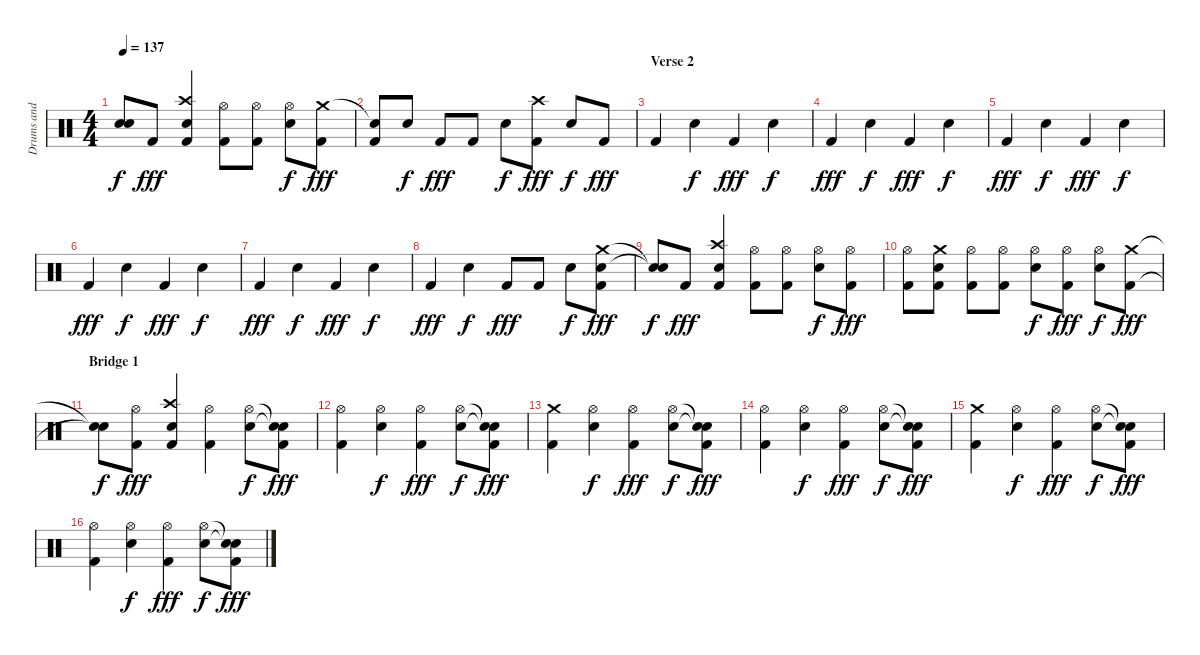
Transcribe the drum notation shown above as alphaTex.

\track ("Drums and Percussion" "Drums and ") {instrument percussion}
\staff {score}
\articulation defaults
\ts (4 4)
\tempo 137
\clef neutral
\ks c
("Snare (hit)"{t} "Snare (hit)"{t}).8{dy f} "Kick (hit) 2".8{dy fff} ("Crash high (hit)" "Electric Snare (hit)" "Kick (hit) 2").4 ("Hi-Hat (open)" "Kick (hit) 2").8 ("Hi-Hat (open)" "Kick (hit) 2").8 ("Hi-Hat (open)" "Electric Snare (hit)").8{dy f} ("Crash medium (hit)" "Kick (hit) 2").8{dy fff} |
("Snare (hit)"{t} "Kick (hit) 2").8 "Electric Snare (hit)".8{dy f} "Kick (hit) 2".8{dy fff} "Kick (hit) 2".8 "Electric Snare (hit)".8{dy f} ("Crash high (hit)" "Kick (hit) 2").8{dy fff} "Electric Snare (hit)".8{dy f} "Kick (hit) 2".8{dy fff} |
\section ("" "Verse 2")
"Kick (hit) 2".4 "Electric Snare (hit)".4{dy f} "Kick (hit) 2".4{dy fff} "Electric Snare (hit)".4{dy f} |
"Kick (hit) 2".4{dy fff} "Electric Snare (hit)".4{dy f} "Kick (hit) 2".4{dy fff} "Electric Snare (hit)".4{dy f} |
"Kick (hit) 2".4{dy fff} "Electric Snare (hit)".4{dy f} "Kick (hit) 2".4{dy fff} "Electric Snare (hit)".4{dy f} |
"Kick (hit) 2".4{dy fff} "Electric Snare (hit)".4{dy f} "Kick (hit) 2".4{dy fff} "Electric Snare (hit)".4{dy f} |
"Kick (hit) 2".4{dy fff} "Electric Snare (hit)".4{dy f} "Kick (hit) 2".4{dy fff} "Electric Snare (hit)".4{dy f} |
"Kick (hit) 2".4{dy fff} "Electric Snare (hit)".4{dy f} "Kick (hit) 2".8{dy fff} "Kick (hit) 2".8 "Electric Snare (hit)".8{dy f} ("Crash medium (hit)" "Snare (hit)" "Kick (hit) 2").8{dy fff} |
("Snare (hit)"{t} "Snare (hit)"{t}).8{dy f} "Kick (hit) 2".8{dy fff} ("Crash high (hit)" "Electric Snare (hit)" "Kick (hit) 2").4 ("Hi-Hat (open)" "Kick (hit) 2").8 ("Hi-Hat (open)" "Kick (hit) 2").8 ("Hi-Hat (open)" "Electric Snare (hit)").8{dy f} ("Hi-Hat (open)" "Kick (hit) 2").8{dy fff} |
("Hi-Hat (open)" "Kick (hit) 2").8 ("Crash medium (hit)" "Electric Snare (hit)" "Kick (hit) 2").8 ("Hi-Hat (open)" "Kick (hit) 2").8 ("Hi-Hat (open)" "Kick (hit) 2").8 ("Hi-Hat (open)" "Electric Snare (hit)").8{dy f} ("Hi-Hat (open)" "Kick (hit) 2").8{dy fff} ("Hi-Hat (open)" "Electric Snare (hit)").8{dy f} ("Crash medium (hit)" "Kick (hit) 2").8{dy fff} |
\section ("" "Bridge 1")
("Snare (hit)"{t} "Snare (hit)"{t}).8{dy f} ("Hi-Hat (open)" "Kick (hit) 2").8{dy fff} ("Crash high (hit)" "Electric Snare (hit)" "Kick (hit) 2").4 ("Hi-Hat (open)" "Kick (hit) 2").4 ("Hi-Hat (open)" "Electric Snare (hit)").8{dy f} ("Snare (hit)"{t} "Snare (hit)"{t} "Kick (hit) 2").8{dy fff} |
("Hi-Hat (open)" "Kick (hit) 2").4 ("Hi-Hat (open)" "Electric Snare (hit)").4{dy f} ("Hi-Hat (open)" "Kick (hit) 2").4{dy fff} ("Hi-Hat (open)" "Electric Snare (hit)").8{dy f} ("Snare (hit)"{t} "Snare (hit)"{t} "Kick (hit) 2").8{dy fff} |
("Crash medium (hit)" "Kick (hit) 2").4 ("Hi-Hat (open)" "Electric Snare (hit)").4{dy f} ("Hi-Hat (open)" "Kick (hit) 2").4{dy fff} ("Hi-Hat (open)" "Electric Snare (hit)").8{dy f} ("Snare (hit)"{t} "Snare (hit)"{t} "Kick (hit) 2").8{dy fff} |
("Hi-Hat (open)" "Kick (hit) 2").4 ("Hi-Hat (open)" "Electric Snare (hit)").4{dy f} ("Hi-Hat (open)" "Kick (hit) 2").4{dy fff} ("Hi-Hat (open)" "Electric Snare (hit)").8{dy f} ("Snare (hit)"{t} "Snare (hit)"{t} "Kick (hit) 2").8{dy fff} |
("Crash medium (hit)" "Kick (hit) 2").4 ("Hi-Hat (open)" "Electric Snare (hit)").4{dy f} ("Hi-Hat (open)" "Kick (hit) 2").4{dy fff} ("Hi-Hat (open)" "Electric Snare (hit)").8{dy f} ("Snare (hit)"{t} "Snare (hit)"{t} "Kick (hit) 2").8{dy fff} |
("Hi-Hat (open)" "Kick (hit) 2").4 ("Hi-Hat (open)" "Electric Snare (hit)").4{dy f} ("Hi-Hat (open)" "Kick (hit) 2").4{dy fff} ("Hi-Hat (open)" "Electric Snare (hit)").8{dy f} ("Snare (hit)"{t} "Snare (hit)"{t} "Kick (hit) 2").8{dy fff}
